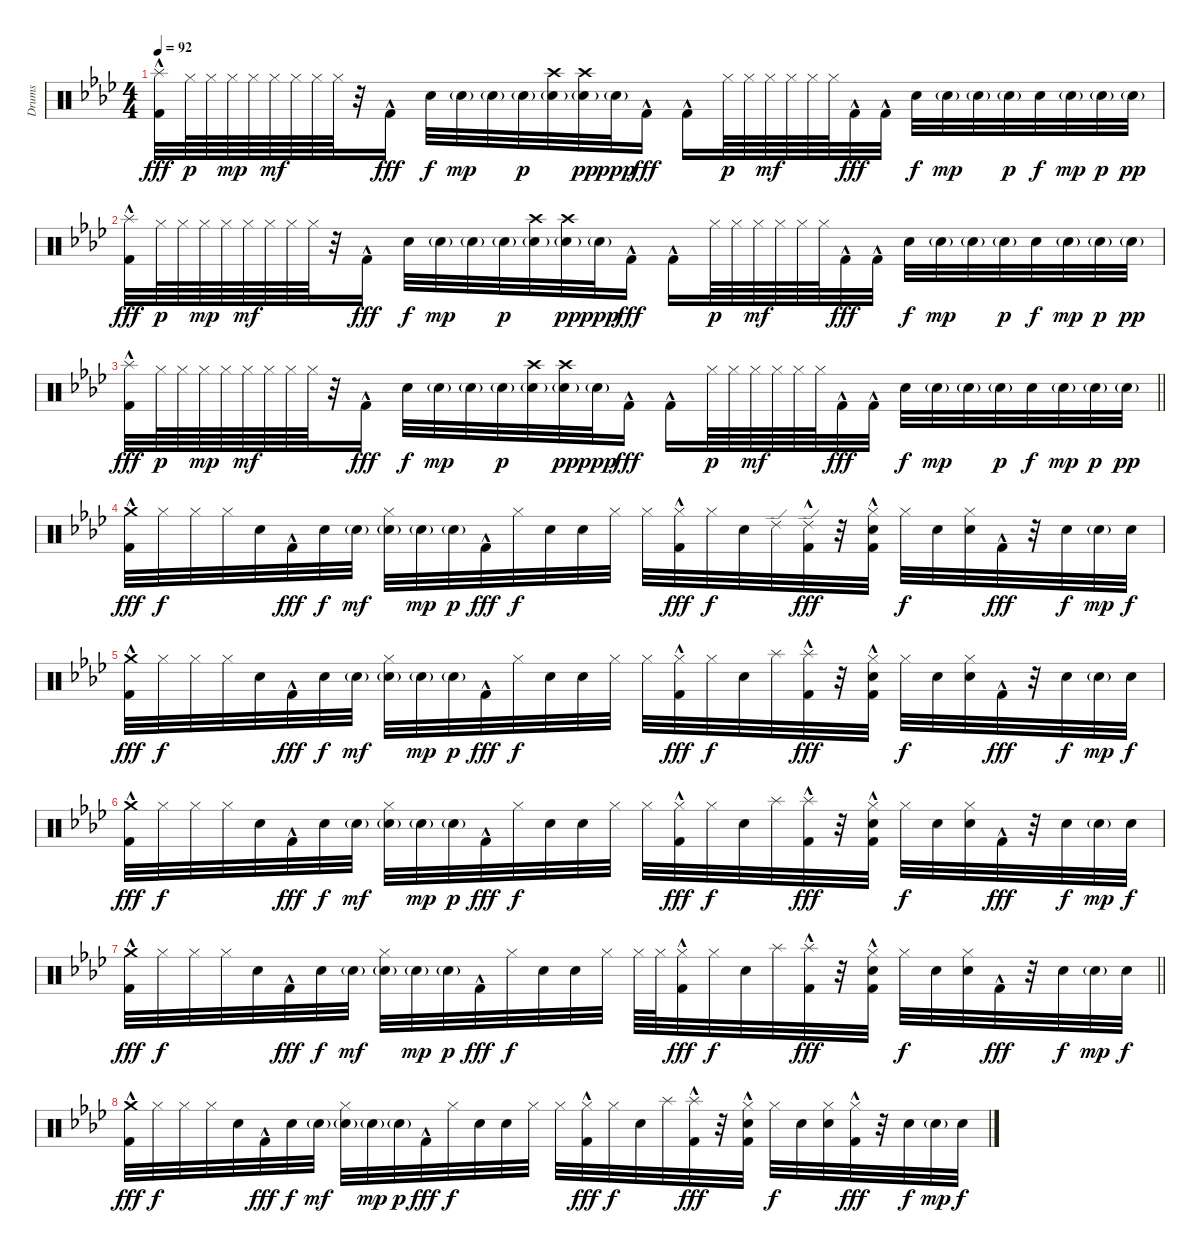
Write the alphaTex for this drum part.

\track ("Drums" "Drums") {instrument percussion}
\staff {score}
\articulation defaults
\ts (4 4)
\tempo 92
\clef neutral
\ks fminor
("Splash (hit)" "Kick (hit) 2"{hac}).32{dy fff} "Hi-Hat (closed)".64{dy p} "Hi-Hat (closed)".64 "Hi-Hat (closed)".64{dy mp} "Hi-Hat (closed)".64 "Hi-Hat (closed)".64{dy mf} "Hi-Hat (closed)".64 "Hi-Hat (closed)".64 "Hi-Hat (closed)".64 r.32 "Kick (hit) 2"{hac}.16{dy fff} "Snare (hit) 2".32{dy f} "Snare (hit) 2"{g}.32{dy mp} "Snare (hit) 2"{g}.32 "Snare (hit) 2"{g}.32{dy p} ("Crash high (hit)" "Snare (hit) 2"{g}).32 ("Crash high (hit)" "Snare (hit) 2"{g}).32{dy pp} "Snare (hit) 2"{g}.32{dy ppp} "Kick (hit) 2"{hac}.16{dy fff} "Kick (hit) 2"{hac}.16 "Hi-Hat (closed)".64{dy p} "Hi-Hat (closed)".64 "Hi-Hat (closed)".64{dy mf} "Hi-Hat (closed)".64 "Hi-Hat (closed)".64 "Hi-Hat (closed)".64 "Kick (hit) 2"{hac}.32{dy fff} "Kick (hit) 2"{hac}.32 "Snare (hit) 2".32{dy f} "Snare (hit) 2"{g}.32{dy mp} "Snare (hit) 2"{g}.32 "Snare (hit) 2"{g}.32{dy p} "Snare (hit) 2".32{dy f} "Snare (hit) 2"{g}.32{dy mp} "Snare (hit) 2"{g}.32{dy p} "Snare (hit) 2"{g}.32{dy pp} |
("Splash (hit)" "Kick (hit) 2"{hac}).32{dy fff} "Hi-Hat (closed)".64{dy p} "Hi-Hat (closed)".64 "Hi-Hat (closed)".64{dy mp} "Hi-Hat (closed)".64 "Hi-Hat (closed)".64{dy mf} "Hi-Hat (closed)".64 "Hi-Hat (closed)".64 "Hi-Hat (closed)".64 r.32 "Kick (hit) 2"{hac}.16{dy fff} "Snare (hit) 2".32{dy f} "Snare (hit) 2"{g}.32{dy mp} "Snare (hit) 2"{g}.32 "Snare (hit) 2"{g}.32{dy p} ("Crash high (hit)" "Snare (hit) 2"{g}).32 ("Crash high (hit)" "Snare (hit) 2"{g}).32{dy pp} "Snare (hit) 2"{g}.32{dy ppp} "Kick (hit) 2"{hac}.16{dy fff} "Kick (hit) 2"{hac}.16 "Hi-Hat (closed)".64{dy p} "Hi-Hat (closed)".64 "Hi-Hat (closed)".64{dy mf} "Hi-Hat (closed)".64 "Hi-Hat (closed)".64 "Hi-Hat (closed)".64 "Kick (hit) 2"{hac}.32{dy fff} "Kick (hit) 2"{hac}.32 "Snare (hit) 2".32{dy f} "Snare (hit) 2"{g}.32{dy mp} "Snare (hit) 2"{g}.32 "Snare (hit) 2"{g}.32{dy p} "Snare (hit) 2".32{dy f} "Snare (hit) 2"{g}.32{dy mp} "Snare (hit) 2"{g}.32{dy p} "Snare (hit) 2"{g}.32{dy pp} |
\barLineRight lightlight
("Splash (hit)" "Kick (hit) 2"{hac}).32{dy fff} "Hi-Hat (closed)".64{dy p} "Hi-Hat (closed)".64 "Hi-Hat (closed)".64{dy mp} "Hi-Hat (closed)".64 "Hi-Hat (closed)".64{dy mf} "Hi-Hat (closed)".64 "Hi-Hat (closed)".64 "Hi-Hat (closed)".64 r.32 "Kick (hit) 2"{hac}.16{dy fff} "Snare (hit) 2".32{dy f} "Snare (hit) 2"{g}.32{dy mp} "Snare (hit) 2"{g}.32 "Snare (hit) 2"{g}.32{dy p} ("Crash high (hit)" "Snare (hit) 2"{g}).32 ("Crash high (hit)" "Snare (hit) 2"{g}).32{dy pp} "Snare (hit) 2"{g}.32{dy ppp} "Kick (hit) 2"{hac}.16{dy fff} "Kick (hit) 2"{hac}.16 "Hi-Hat (closed)".64{dy p} "Hi-Hat (closed)".64 "Hi-Hat (closed)".64{dy mf} "Hi-Hat (closed)".64 "Hi-Hat (closed)".64 "Hi-Hat (closed)".64 "Kick (hit) 2"{hac}.32{dy fff} "Kick (hit) 2"{hac}.32 "Snare (hit) 2".32{dy f} "Snare (hit) 2"{g}.32{dy mp} "Snare (hit) 2"{g}.32 "Snare (hit) 2"{g}.32{dy p} "Snare (hit) 2".32{dy f} "Snare (hit) 2"{g}.32{dy mp} "Snare (hit) 2"{g}.32{dy p} "Snare (hit) 2"{g}.32{dy pp} |
("Crash medium (hit)" "Kick (hit) 2"{hac}).32{dy fff} "Hi-Hat (closed)".32{dy f} "Hi-Hat (closed)".32 "Hi-Hat (closed)".32 "Snare (hit) 2".32 "Kick (hit) 2"{hac}.32{dy fff} "Snare (hit) 2".32{dy f} "Snare (hit) 2"{g}.32{dy mf} ("Hi-Hat (closed)" "Snare (hit) 2"{g}).32 "Snare (hit) 2"{g}.32{dy mp} "Snare (hit) 2"{g}.32{dy p} "Kick (hit) 2"{hac}.32{dy fff} "Hi-Hat (closed)".32{dy f} "Snare (hit) 2".32 "Snare (hit) 2".32 "Hi-Hat (closed)".32 "Hi-Hat (closed)".32 ("Hi-Hat (closed)" "Kick (hit) 2"{hac}).32{dy fff} "Hi-Hat (closed)".32{dy f} "Snare (hit) 2".32 "Ride (edge) 2".32 ("Ride (edge) 2" "Kick (hit) 2"{hac}).32{dy fff} r.32 ("Hi-Hat (closed)" "Snare (hit) 2" "Kick (hit) 2"{hac}).32 "Hi-Hat (closed)".32{dy f} "Snare (hit) 2".32 ("Hi-Hat (closed)" "Snare (hit) 2").32 "Kick (hit) 2"{hac}.32{dy fff} r.32 "Snare (hit) 2".32{dy f} "Snare (hit) 2"{g}.32{dy mp} "Snare (hit) 2".32{dy f} |
("Crash medium (hit)" "Kick (hit) 2"{hac}).32{dy fff} "Hi-Hat (closed)".32{dy f} "Hi-Hat (closed)".32 "Hi-Hat (closed)".32 "Snare (hit) 2".32 "Kick (hit) 2"{hac}.32{dy fff} "Snare (hit) 2".32{dy f} "Snare (hit) 2"{g}.32{dy mf} ("Hi-Hat (closed)" "Snare (hit) 2"{g}).32 "Snare (hit) 2"{g}.32{dy mp} "Snare (hit) 2"{g}.32{dy p} "Kick (hit) 2"{hac}.32{dy fff} "Hi-Hat (closed)".32{dy f} "Snare (hit) 2".32 "Snare (hit) 2".32 "Hi-Hat (closed)".32 "Hi-Hat (closed)".32 ("Hi-Hat (closed)" "Kick (hit) 2"{hac}).32{dy fff} "Hi-Hat (closed)".32{dy f} "Snare (hit) 2".32 "Splash (hit)".32 ("Splash (hit)" "Kick (hit) 2"{hac}).32{dy fff} r.32 ("Hi-Hat (closed)" "Snare (hit) 2" "Kick (hit) 2"{hac}).32 "Hi-Hat (closed)".32{dy f} "Snare (hit) 2".32 ("Hi-Hat (closed)" "Snare (hit) 2").32 "Kick (hit) 2"{hac}.32{dy fff} r.32 "Snare (hit) 2".32{dy f} "Snare (hit) 2"{g}.32{dy mp} "Snare (hit) 2".32{dy f} |
("Crash medium (hit)" "Kick (hit) 2"{hac}).32{dy fff} "Hi-Hat (closed)".32{dy f} "Hi-Hat (closed)".32 "Hi-Hat (closed)".32 "Snare (hit) 2".32 "Kick (hit) 2"{hac}.32{dy fff} "Snare (hit) 2".32{dy f} "Snare (hit) 2"{g}.32{dy mf} ("Hi-Hat (closed)" "Snare (hit) 2"{g}).32 "Snare (hit) 2"{g}.32{dy mp} "Snare (hit) 2"{g}.32{dy p} "Kick (hit) 2"{hac}.32{dy fff} "Hi-Hat (closed)".32{dy f} "Snare (hit) 2".32 "Snare (hit) 2".32 "Hi-Hat (closed)".32 "Hi-Hat (closed)".32 ("Hi-Hat (closed)" "Kick (hit) 2"{hac}).32{dy fff} "Hi-Hat (closed)".32{dy f} "Snare (hit) 2".32 "Splash (hit)".32 ("Splash (hit)" "Kick (hit) 2"{hac}).32{dy fff} r.32 ("Hi-Hat (closed)" "Snare (hit) 2" "Kick (hit) 2"{hac}).32 "Hi-Hat (closed)".32{dy f} "Snare (hit) 2".32 ("Hi-Hat (closed)" "Snare (hit) 2").32 "Kick (hit) 2"{hac}.32{dy fff} r.32 "Snare (hit) 2".32{dy f} "Snare (hit) 2"{g}.32{dy mp} "Snare (hit) 2".32{dy f} |
\barLineRight lightlight
("Crash medium (hit)" "Kick (hit) 2"{hac}).32{dy fff} "Hi-Hat (closed)".32{dy f} "Hi-Hat (closed)".32 "Hi-Hat (closed)".32 "Snare (hit) 2".32 "Kick (hit) 2"{hac}.32{dy fff} "Snare (hit) 2".32{dy f} "Snare (hit) 2"{g}.32{dy mf} ("Hi-Hat (closed)" "Snare (hit) 2"{g}).32 "Snare (hit) 2"{g}.32{dy mp} "Snare (hit) 2"{g}.32{dy p} "Kick (hit) 2"{hac}.32{dy fff} "Hi-Hat (closed)".32{dy f} "Snare (hit) 2".32 "Snare (hit) 2".32 "Hi-Hat (closed)".32 "Hi-Hat (closed)".64 "Hi-Hat (closed)".64 ("Hi-Hat (closed)" "Kick (hit) 2"{hac}).32{dy fff} "Hi-Hat (closed)".32{dy f} "Snare (hit) 2".32 "Splash (hit)".32 ("Splash (hit)" "Kick (hit) 2"{hac}).32{dy fff} r.32 ("Hi-Hat (closed)" "Snare (hit) 2" "Kick (hit) 2"{hac}).32 "Hi-Hat (closed)".32{dy f} "Snare (hit) 2".32 ("Hi-Hat (closed)" "Snare (hit) 2").32 "Kick (hit) 2"{hac}.32{dy fff} r.32 "Snare (hit) 2".32{dy f} "Snare (hit) 2"{g}.32{dy mp} "Snare (hit) 2".32{dy f} |
("Crash medium (hit)" "Kick (hit) 2"{hac}).32{dy fff} "Hi-Hat (closed)".32{dy f} "Hi-Hat (closed)".32 "Hi-Hat (closed)".32 "Snare (hit) 2".32 "Kick (hit) 2"{hac}.32{dy fff} "Snare (hit) 2".32{dy f} "Snare (hit) 2"{g}.32{dy mf} ("Hi-Hat (closed)" "Snare (hit) 2"{g}).32 "Snare (hit) 2"{g}.32{dy mp} "Snare (hit) 2"{g}.32{dy p} "Kick (hit) 2"{hac}.32{dy fff} "Hi-Hat (closed)".32{dy f} "Snare (hit) 2".32 "Snare (hit) 2".32 "Hi-Hat (closed)".32 "Hi-Hat (closed)".32 ("Hi-Hat (closed)" "Kick (hit) 2"{hac}).32{dy fff} "Hi-Hat (closed)".32{dy f} "Snare (hit) 2".32 "Splash (hit)".32 ("Splash (hit)" "Kick (hit) 2"{hac}).32{dy fff} r.32 ("Hi-Hat (closed)" "Snare (hit) 2" "Kick (hit) 2"{hac}).32 "Hi-Hat (closed)".32{dy f} "Snare (hit) 2".32 ("Hi-Hat (closed)" "Snare (hit) 2").32 ("Hi-Hat (closed)" "Kick (hit) 2"{hac}).32{dy fff} r.32 "Snare (hit) 2".32{dy f} "Snare (hit) 2"{g}.32{dy mp} "Snare (hit) 2".32{dy f}
